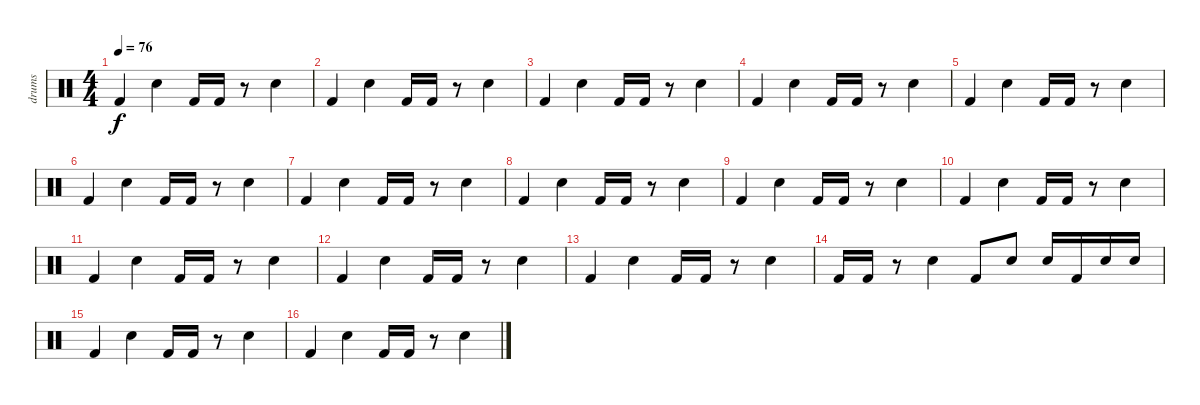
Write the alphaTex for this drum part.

\track ("drums" "drums") {instrument percussion}
\staff {score}
\articulation defaults
\ts (4 4)
\tempo 76
\clef neutral
\ks c "Kick (hit) 2".4{dy f} "Snare (hit) 2".4 "Kick (hit) 2".16 "Kick (hit) 2".16
r.8 "Snare (hit) 2".4 |
"Kick (hit) 2".4 "Snare (hit) 2".4 "Kick (hit) 2".16 "Kick (hit) 2".16 r.8 "Snare (hit) 2".4 |
"Kick (hit) 2".4 "Snare (hit) 2".4 "Kick (hit) 2".16 "Kick (hit) 2".16 r.8 "Snare (hit) 2".4 |
"Kick (hit) 2".4 "Snare (hit) 2".4 "Kick (hit) 2".16 "Kick (hit) 2".16 r.8 "Snare (hit) 2".4 |
"Kick (hit) 2".4 "Snare (hit) 2".4 "Kick (hit) 2".16 "Kick (hit) 2".16 r.8 "Snare (hit) 2".4 |
"Kick (hit) 2".4 "Snare (hit) 2".4 "Kick (hit) 2".16 "Kick (hit) 2".16 r.8 "Snare (hit) 2".4 |
"Kick (hit) 2".4 "Snare (hit) 2".4 "Kick (hit) 2".16 "Kick (hit) 2".16 r.8 "Snare (hit) 2".4 |
"Kick (hit) 2".4 "Snare (hit) 2".4 "Kick (hit) 2".16 "Kick (hit) 2".16 r.8 "Snare (hit) 2".4 |
"Kick (hit) 2".4 "Snare (hit) 2".4 "Kick (hit) 2".16 "Kick (hit) 2".16 r.8 "Snare (hit) 2".4 |
"Kick (hit) 2".4 "Snare (hit) 2".4 "Kick (hit) 2".16 "Kick (hit) 2".16 r.8 "Snare (hit) 2".4 |
"Kick (hit) 2".4 "Snare (hit) 2".4 "Kick (hit) 2".16 "Kick (hit) 2".16 r.8 "Snare (hit) 2".4 |
"Kick (hit) 2".4 "Snare (hit) 2".4 "Kick (hit) 2".16 "Kick (hit) 2".16 r.8 "Snare (hit) 2".4 |
"Kick (hit) 2".4 "Snare (hit) 2".4 "Kick (hit) 2".16 "Kick (hit) 2".16 r.8 "Snare (hit) 2".4 |
"Kick (hit) 2".16 "Kick (hit) 2".16 r.8 "Snare (hit) 2".4 "Kick (hit) 2".8 "Snare (hit) 2".8 "Snare (hit) 2".16 "Kick (hit) 2".16 "Snare (hit) 2".16 "Snare (hit) 2".16 |
"Kick (hit) 2".4 "Snare (hit) 2".4 "Kick (hit) 2".16 "Kick (hit) 2".16 r.8 "Snare (hit) 2".4 |
"Kick (hit) 2".4 "Snare (hit) 2".4 "Kick (hit) 2".16 "Kick (hit) 2".16 r.8 "Snare (hit) 2".4
